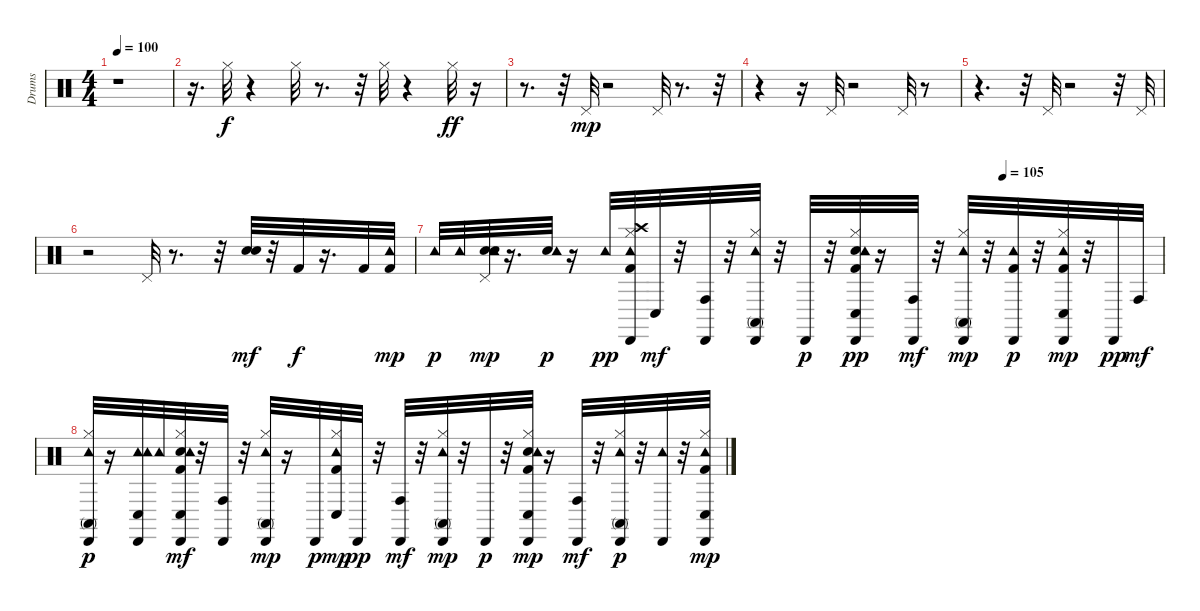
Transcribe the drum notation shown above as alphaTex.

\track ("Drums" "Drums") {instrument percussion}
\staff {score}
\articulation defaults
\ts (4 4)
\tempo 100
\clef neutral
\ks c
r.1{dy f} |
r.16{d} "Hi-Hat (closed)".32 r.4 "Hi-Hat (closed)".32 r.8{d} r.32 "Hi-Hat (closed)".32 r.4 "Hi-Hat (closed)".32{dy ff} r.16 |
r.8{d} r.32 "Pedal Hi-Hat (hit)".32{dy mp} r.2 "Pedal Hi-Hat (hit)".32 r.8{d} r.32 |
r.4 r.16 "Pedal Hi-Hat (hit)".32 r.2 "Pedal Hi-Hat (hit)".32 r.8 |
r.4{d} r.32 "Pedal Hi-Hat (hit)".32 r.2 r.32 "Pedal Hi-Hat (hit)".32 |
r.2 "Pedal Hi-Hat (hit)".32 r.8{d} r.32 ("Hand Clap (hit)" "Snare (hit) 2").32{dy mf} r.32 "Kick (hit) 2".32{dy f} r.16{d} "Kick (hit) 2".32 ("Tambourine (hit)" "Kick (hit) 2").32{dy mp} |
\tempo (105 0.78125)
"Tambourine (hit)".32{dy p} "Tambourine (hit)".32 ("Hand Clap (hit)" "Snare (hit) 2" "Tambourine (hit)" "Pedal Hi-Hat (hit)").32{dy mp} r.16{d} ("Hand Clap (hit)" "Tambourine (hit)").32{dy p} r.16 "Tambourine (hit)".32{dy pp} ("Crash high (hit)" "Hi-Hat (closed)" "Kick (hit) 2" "Tambourine (hit)" "Cabasa (hit)").32 "Conga low (hit)".32{dy mf} r.32 ("Cabasa (hit)" "Conga high (hit)").32 r.32 ("Hi-Hat (closed)" "Tambourine (hit)" "Cabasa (hit)" "Conga high (mute)").32 r.32 "Cabasa (hit)".32{dy p} r.32 ("Hi-Hat (closed)" "Snare (hit) 2" "Kick (hit) 2" "Conga low (hit)" "Tambourine (hit)" "Cabasa (hit)").32{dy pp} r.16 ("Cabasa (hit)" "Conga high (hit)").32{dy mf} r.32 ("Tambourine (hit)" "Hi-Hat (closed)" "Conga high (mute)" "Cabasa (hit)").32{dy mp} r.32 ("Tambourine (hit)" "Kick (hit) 2" "Cabasa (hit)").32{dy p} r.32 ("Hi-Hat (closed)" "Kick (hit) 2" "Cabasa (hit)" "Conga low (hit)" "Tambourine (hit)").32{dy mp} r.32 "Cabasa (hit)".32{dy pp} "Conga high (hit)".32{dy mf} |
("Cabasa (hit)" "Hi-Hat (closed)" "Tambourine (hit)" "Conga high (mute)").32{dy p} r.16 ("Tambourine (hit)" "Cabasa (hit)" "Conga low (hit)" "Tambourine (hit)").32 "Tambourine (hit)".32 ("Cabasa (hit)" "Hi-Hat (closed)" "Snare (hit) 2" "Kick (hit) 2" "Tambourine (hit)" "Conga low (hit)").32{dy mf} r.32 ("Cabasa (hit)" "Conga high (hit)").32 r.32 ("Conga high (mute)" "Hi-Hat (closed)" "Tambourine (hit)" "Cabasa (hit)").32{dy mp} r.16 "Cabasa (hit)".32{dy p} ("Conga low (hit)" "Hi-Hat (closed)" "Kick (hit) 2" "Tambourine (hit)").32{dy mp} "Cabasa (hit)".32{dy pp} r.32 ("Cabasa (hit)" "Conga high (hit)").32{dy mf} r.32 ("Hi-Hat (closed)" "Conga high (mute)" "Tambourine (hit)" "Cabasa (hit)").32{dy mp} r.32 "Cabasa (hit)".32{dy p} r.32 ("Hi-Hat (closed)" "Snare (hit) 2" "Kick (hit) 2" "Cabasa (hit)" "Conga low (hit)" "Tambourine (hit)").32{dy mp} r.16 ("Cabasa (hit)" "Conga high (hit)").32{dy mf} r.32 ("Conga high (mute)" "Hi-Hat (closed)" "Cabasa (hit)" "Tambourine (hit)").32{dy p} r.32 ("Tambourine (hit)" "Cabasa (hit)").32 r.32 ("Conga low (hit)" "Hi-Hat (closed)" "Kick (hit) 2" "Cabasa (hit)" "Tambourine (hit)").32{dy mp}
